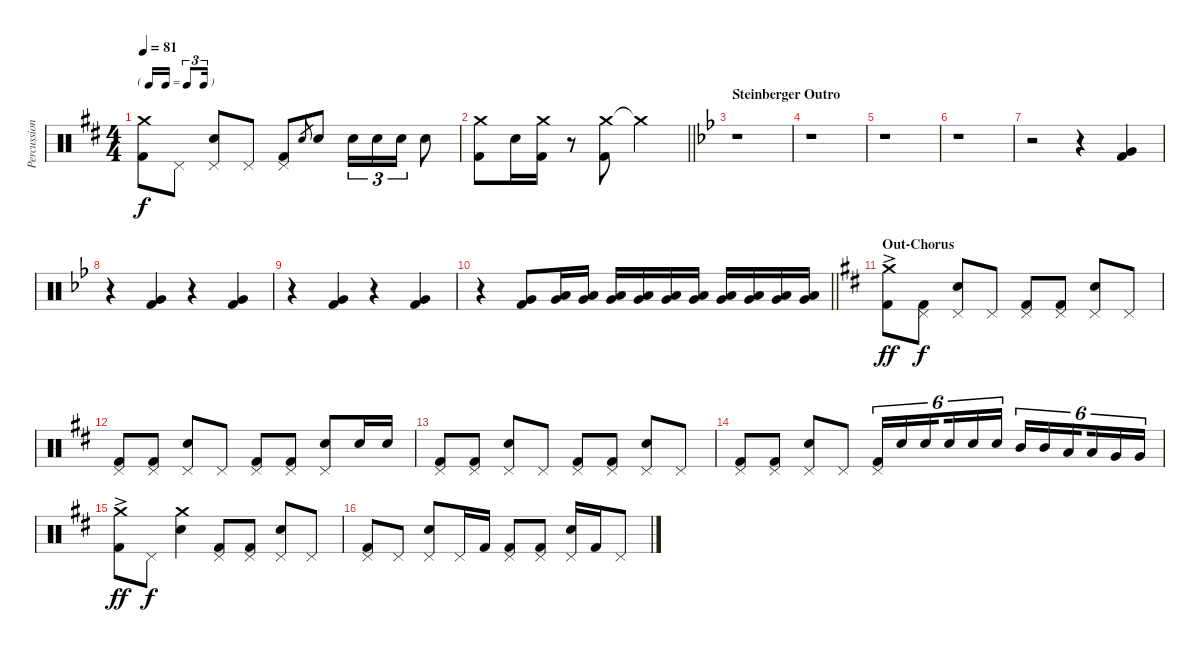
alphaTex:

\track ("Percussion" "Percussion") {instrument percussion}
\staff {score}
\articulation defaults
\ts (4 4)
\tf triplet16th
\tempo 81
\clef neutral
\ks d
("Crash medium (hit)" "Kick (hit) 2").8{dy f} "Pedal Hi-Hat (hit)".8 ("Pedal Hi-Hat (hit)" "Snare (hit) 2").8 "Pedal Hi-Hat (hit)".8 ("Pedal Hi-Hat (hit)" "Kick (hit) 2").8 "Snare (hit) 2".8{gr} "Snare (hit) 2".8 "Snare (hit) 2".16{tu (3 2)} "Snare (hit) 2".16{tu (3 2)} "Snare (hit) 2".16{tu (3 2)} "Snare (hit) 2".8 |
\barLineRight lightlight
("Crash medium (hit)" "Kick (hit) 2").8 "Snare (hit) 2".16 ("Crash medium (hit)" "Kick (hit) 2").16 r.8 ("Crash medium (hit)" "Kick (hit) 2").8 "Crash medium (hit)"{t}.2 |
\section ("" "Steinberger Outro")
\ks gminor
r.1 |
r.1 |
r.1 |
r.1 |
r.2 r.4 ("Very Low Tom (hit)" "Kick (hit) 2").4 |
r.4 ("Very Low Tom (hit)" "Kick (hit) 2").4 r.4 ("Very Low Tom (hit)" "Kick (hit) 2").4 |
r.4 ("Very Low Tom (hit)" "Kick (hit) 2").4 r.4 ("Very Low Tom (hit)" "Kick (hit) 2").4 |
\barLineRight lightlight
r.4 ("Very Low Tom (hit)" "Kick (hit) 2").8 ("Low Tom (hit)" "Very Low Tom (hit)").16 ("Low Tom (hit)" "Very Low Tom (hit)").16 ("Low Tom (hit)" "Very Low Tom (hit)").16 ("Low Tom (hit)" "Very Low Tom (hit)").16 ("Low Tom (hit)" "Very Low Tom (hit)").16 ("Low Tom (hit)" "Very Low Tom (hit)").16 ("Low Tom (hit)" "Very Low Tom (hit)").16 ("Low Tom (hit)" "Very Low Tom (hit)").16 ("Low Tom (hit)" "Very Low Tom (hit)").16 ("Low Tom (hit)" "Very Low Tom (hit)").16 |
\section ("" "Out-Chorus")
\ks d
("Crash medium (hit)"{ac} "Kick (hit) 2").8{dy ff} ("Pedal Hi-Hat (hit)" "Kick (hit) 2").8{dy f} ("Pedal Hi-Hat (hit)" "Snare (hit) 2").8 "Pedal Hi-Hat (hit)".8 ("Pedal Hi-Hat (hit)" "Kick (hit) 2").8 ("Pedal Hi-Hat (hit)" "Kick (hit) 2").8 ("Pedal Hi-Hat (hit)" "Snare (hit) 2").8 "Pedal Hi-Hat (hit)".8 |
("Pedal Hi-Hat (hit)" "Kick (hit) 2").8 ("Pedal Hi-Hat (hit)" "Kick (hit) 2").8 ("Pedal Hi-Hat (hit)" "Snare (hit) 2").8 "Pedal Hi-Hat (hit)".8 ("Pedal Hi-Hat (hit)" "Kick (hit) 2").8 ("Pedal Hi-Hat (hit)" "Kick (hit) 2").8 ("Pedal Hi-Hat (hit)" "Snare (hit) 2").8 "Snare (hit) 2".16 "Snare (hit) 2".16 |
("Pedal Hi-Hat (hit)" "Kick (hit) 2").8 ("Pedal Hi-Hat (hit)" "Kick (hit) 2").8 ("Pedal Hi-Hat (hit)" "Snare (hit) 2").8 "Pedal Hi-Hat (hit)".8 ("Pedal Hi-Hat (hit)" "Kick (hit) 2").8 ("Pedal Hi-Hat (hit)" "Kick (hit) 2").8 ("Pedal Hi-Hat (hit)" "Snare (hit) 2").8 "Pedal Hi-Hat (hit)".8 |
("Pedal Hi-Hat (hit)" "Kick (hit) 2").8 ("Pedal Hi-Hat (hit)" "Kick (hit) 2").8 ("Pedal Hi-Hat (hit)" "Snare (hit) 2").8 "Pedal Hi-Hat (hit)".8 ("Pedal Hi-Hat (hit)" "Kick (hit) 2").16{tu (6 4)} "Snare (hit) 2".16{tu (6 4)} "Snare (hit) 2".16{tu (6 4) beam splitsecondary} "Snare (hit) 2".16{tu (6 4)} "Snare (hit) 2".16{tu (6 4)} "Snare (hit) 2".16{tu (6 4)} "Mid Tom (hit)".16{tu (6 4)} "Mid Tom (hit)".16{tu (6 4)} "Low Tom (hit)".16{tu (6 4) beam splitsecondary} "Low Tom (hit)".16{tu (6 4)} "Very Low Tom (hit)".16{tu (6 4)} "Very Low Tom (hit)".16{tu (6 4)} |
("Crash medium (hit)"{ac} "Kick (hit) 2").8{dy ff} "Pedal Hi-Hat (hit)".8{dy f} ("Crash medium (hit)" "Snare (hit) 2").4 ("Pedal Hi-Hat (hit)" "Kick (hit) 2").8 ("Pedal Hi-Hat (hit)" "Kick (hit) 2").8 ("Pedal Hi-Hat (hit)" "Snare (hit) 2").8 "Pedal Hi-Hat (hit)".8 |
("Pedal Hi-Hat (hit)" "Kick (hit) 2").8 "Pedal Hi-Hat (hit)".8 ("Pedal Hi-Hat (hit)" "Snare (hit) 2").8 "Pedal Hi-Hat (hit)".16 "Kick (hit) 2".16 ("Pedal Hi-Hat (hit)" "Kick (hit) 2").8 ("Pedal Hi-Hat (hit)" "Kick (hit) 2").8 ("Pedal Hi-Hat (hit)" "Snare (hit) 2").16 "Kick (hit) 2".16 "Pedal Hi-Hat (hit)".8
